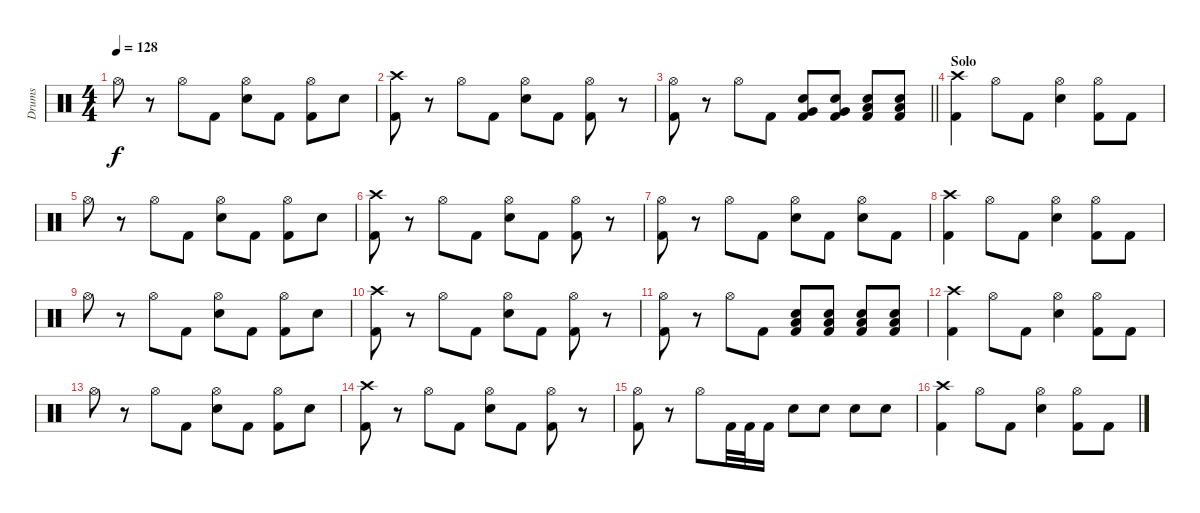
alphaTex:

\track ("Drums" "Drums") {instrument percussion}
\staff {score}
\articulation defaults
\ts (4 4)
\tempo 128
\clef neutral
\ks c "Hi-Hat (open)".8{dy f}
r.8 "Hi-Hat (open)".8 "Kick (hit) 2".8 ("Hi-Hat (open)" "Electric Snare (hit)").8 "Kick (hit) 2".8 ("Hi-Hat (open)" "Kick (hit) 2").8 "Electric Snare (hit)".8 |
("Crash high (hit)" "Kick (hit) 2").8 r.8 "Hi-Hat (open)".8 "Kick (hit) 2".8 ("Hi-Hat (open)" "Electric Snare (hit)").8 "Kick (hit) 2".8 ("Hi-Hat (open)" "Kick (hit) 2").8 r.8 |
\barLineRight lightlight
("Hi-Hat (open)" "Kick (hit) 2").8 r.8 "Hi-Hat (open)".8 "Kick (hit) 2".8 ("Electric Snare (hit)" "Very Low Tom (hit)" "Kick (hit) 2").8 ("Electric Snare (hit)" "Very Low Tom (hit)" "Kick (hit) 2").8 ("Electric Snare (hit)" "Low Floor Tom (hit)" "Kick (hit) 2").8 ("Electric Snare (hit)" "Low Floor Tom (hit)" "Kick (hit) 2").8 |
\section ("" "Solo")
("Crash high (hit)" "Kick (hit) 2").4 "Hi-Hat (open)".8 "Kick (hit) 2".8 ("Hi-Hat (open)" "Electric Snare (hit)").4 ("Hi-Hat (open)" "Kick (hit) 2").8 "Kick (hit) 2".8 |
"Hi-Hat (open)".8 r.8 "Hi-Hat (open)".8 "Kick (hit) 2".8 ("Hi-Hat (open)" "Electric Snare (hit)").8 "Kick (hit) 2".8 ("Hi-Hat (open)" "Kick (hit) 2").8 "Electric Snare (hit)".8 |
("Crash high (hit)" "Kick (hit) 2").8 r.8 "Hi-Hat (open)".8 "Kick (hit) 2".8 ("Hi-Hat (open)" "Electric Snare (hit)").8 "Kick (hit) 2".8 ("Hi-Hat (open)" "Kick (hit) 2").8 r.8 |
("Hi-Hat (open)" "Kick (hit) 2").8 r.8 "Hi-Hat (open)".8 "Kick (hit) 2".8 ("Hi-Hat (open)" "Electric Snare (hit)").8 "Kick (hit) 2".8 ("Hi-Hat (open)" "Electric Snare (hit)").8 "Kick (hit) 2".8 |
("Crash high (hit)" "Kick (hit) 2").4 "Hi-Hat (open)".8 "Kick (hit) 2".8 ("Hi-Hat (open)" "Electric Snare (hit)").4 ("Hi-Hat (open)" "Kick (hit) 2").8 "Kick (hit) 2".8 |
"Hi-Hat (open)".8 r.8 "Hi-Hat (open)".8 "Kick (hit) 2".8 ("Hi-Hat (open)" "Electric Snare (hit)").8 "Kick (hit) 2".8 ("Hi-Hat (open)" "Kick (hit) 2").8 "Electric Snare (hit)".8 |
("Crash high (hit)" "Kick (hit) 2").8 r.8 "Hi-Hat (open)".8 "Kick (hit) 2".8 ("Hi-Hat (open)" "Electric Snare (hit)").8 "Kick (hit) 2".8 ("Hi-Hat (open)" "Kick (hit) 2").8 r.8 |
("Hi-Hat (open)" "Kick (hit) 2").8 r.8 "Hi-Hat (open)".8 "Kick (hit) 2".8 ("Electric Snare (hit)" "Low Floor Tom (hit)" "Kick (hit) 2").8 ("Electric Snare (hit)" "Low Floor Tom (hit)" "Kick (hit) 2").8 ("Electric Snare (hit)" "Low Floor Tom (hit)" "Kick (hit) 2").8 ("Electric Snare (hit)" "Low Floor Tom (hit)" "Kick (hit) 2").8 |
("Crash high (hit)" "Kick (hit) 2").4 "Hi-Hat (open)".8 "Kick (hit) 2".8 ("Hi-Hat (open)" "Electric Snare (hit)").4 ("Hi-Hat (open)" "Kick (hit) 2").8 "Kick (hit) 2".8 |
"Hi-Hat (open)".8 r.8 "Hi-Hat (open)".8 "Kick (hit) 2".8 ("Hi-Hat (open)" "Electric Snare (hit)").8 "Kick (hit) 2".8 ("Hi-Hat (open)" "Kick (hit) 2").8 "Electric Snare (hit)".8 |
("Crash high (hit)" "Kick (hit) 2").8 r.8 "Hi-Hat (open)".8 "Kick (hit) 2".8 ("Hi-Hat (open)" "Electric Snare (hit)").8 "Kick (hit) 2".8 ("Hi-Hat (open)" "Kick (hit) 2").8 r.8 |
("Hi-Hat (open)" "Kick (hit) 2").8 r.8 "Hi-Hat (open)".8 "Kick (hit) 2".32 "Kick (hit) 2".32 "Kick (hit) 2".16 "Electric Snare (hit)".8 "Electric Snare (hit)".8 "Electric Snare (hit)".8 "Electric Snare (hit)".8 |
("Crash high (hit)" "Kick (hit) 2").4 "Hi-Hat (open)".8 "Kick (hit) 2".8 ("Hi-Hat (open)" "Electric Snare (hit)").4 ("Hi-Hat (open)" "Kick (hit) 2").8 "Kick (hit) 2".8
